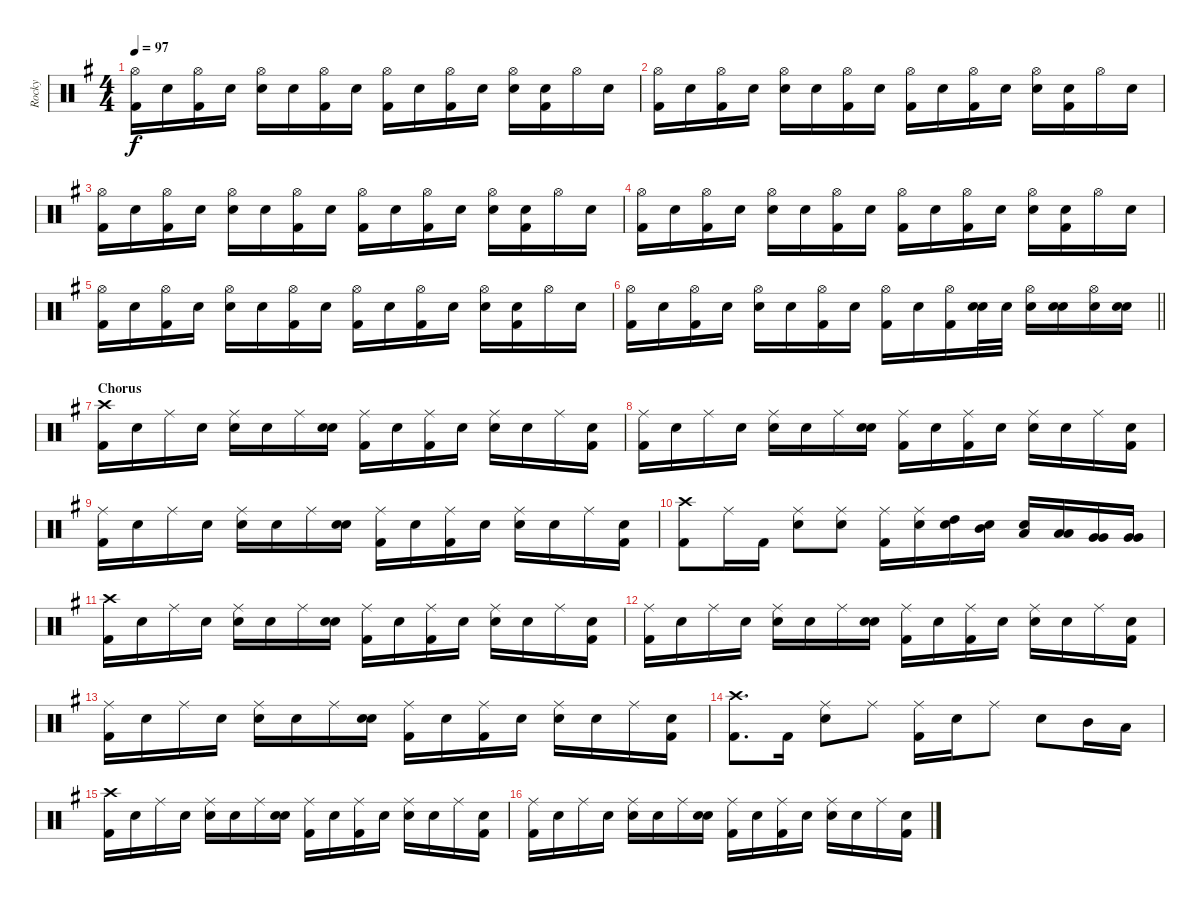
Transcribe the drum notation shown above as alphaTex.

\track ("Rocky" "Rocky") {instrument percussion}
\staff {score}
\articulation defaults
\ts (4 4)
\tempo 97
\clef neutral
\ks g
("Hi-Hat (open)" "Kick (hit) 2").16{dy f} "Snare (hit)".16 ("Hi-Hat (open)" "Kick (hit) 2").16 "Snare (hit)".16 ("Hi-Hat (open)" "Snare (hit) 2").16 "Snare (hit)".16 ("Hi-Hat (open)" "Kick (hit) 2").16 "Snare (hit)".16 ("Hi-Hat (open)" "Kick (hit) 2").16 "Snare (hit)".16 ("Hi-Hat (open)" "Kick (hit) 2").16 "Snare (hit)".16 ("Hi-Hat (open)" "Snare (hit) 2").16 ("Snare (hit)" "Kick (hit) 2").16 "Hi-Hat (open)".16 "Snare (hit)".16 |
("Hi-Hat (open)" "Kick (hit) 2").16 "Snare (hit)".16 ("Hi-Hat (open)" "Kick (hit) 2").16 "Snare (hit)".16 ("Hi-Hat (open)" "Snare (hit) 2").16 "Snare (hit)".16 ("Hi-Hat (open)" "Kick (hit) 2").16 "Snare (hit)".16 ("Hi-Hat (open)" "Kick (hit) 2").16 "Snare (hit)".16 ("Hi-Hat (open)" "Kick (hit) 2").16 "Snare (hit)".16 ("Hi-Hat (open)" "Snare (hit) 2").16 ("Snare (hit)" "Kick (hit) 2").16 "Hi-Hat (open)".16 "Snare (hit)".16 |
("Hi-Hat (open)" "Kick (hit) 2").16 "Snare (hit)".16 ("Hi-Hat (open)" "Kick (hit) 2").16 "Snare (hit)".16 ("Hi-Hat (open)" "Snare (hit) 2").16 "Snare (hit)".16 ("Hi-Hat (open)" "Kick (hit) 2").16 "Snare (hit)".16 ("Hi-Hat (open)" "Kick (hit) 2").16 "Snare (hit)".16 ("Hi-Hat (open)" "Kick (hit) 2").16 "Snare (hit)".16 ("Hi-Hat (open)" "Snare (hit) 2").16 ("Snare (hit)" "Kick (hit) 2").16 "Hi-Hat (open)".16 "Snare (hit)".16 |
("Hi-Hat (open)" "Kick (hit) 2").16 "Snare (hit)".16 ("Hi-Hat (open)" "Kick (hit) 2").16 "Snare (hit)".16 ("Hi-Hat (open)" "Snare (hit) 2").16 "Snare (hit)".16 ("Hi-Hat (open)" "Kick (hit) 2").16 "Snare (hit)".16 ("Hi-Hat (open)" "Kick (hit) 2").16 "Snare (hit)".16 ("Hi-Hat (open)" "Kick (hit) 2").16 "Snare (hit)".16 ("Hi-Hat (open)" "Snare (hit) 2").16 ("Snare (hit)" "Kick (hit) 2").16 "Hi-Hat (open)".16 "Snare (hit)".16 |
("Hi-Hat (open)" "Kick (hit) 2").16 "Snare (hit)".16 ("Hi-Hat (open)" "Kick (hit) 2").16 "Snare (hit)".16 ("Hi-Hat (open)" "Snare (hit) 2").16 "Snare (hit)".16 ("Hi-Hat (open)" "Kick (hit) 2").16 "Snare (hit)".16 ("Hi-Hat (open)" "Kick (hit) 2").16 "Snare (hit)".16 ("Hi-Hat (open)" "Kick (hit) 2").16 "Snare (hit)".16 ("Hi-Hat (open)" "Snare (hit) 2").16 ("Snare (hit)" "Kick (hit) 2").16 "Hi-Hat (open)".16 "Snare (hit)".16 |
\barLineRight lightlight
("Hi-Hat (open)" "Kick (hit) 2").16 "Snare (hit)".16 ("Hi-Hat (open)" "Kick (hit) 2").16 "Snare (hit)".16 ("Hi-Hat (open)" "Snare (hit) 2").16 "Snare (hit)".16 ("Hi-Hat (open)" "Kick (hit) 2").16 "Snare (hit)".16 ("Hi-Hat (open)" "Kick (hit) 2").16 "Snare (hit)".16 ("Hi-Hat (open)" "Kick (hit) 2").16 ("Snare (hit)" "Snare (hit) 2").32 "Snare (hit) 2".32 ("Hi-Hat (open)" "Snare (hit) 2").16 ("Snare (hit)" "Snare (hit) 2").16 ("Hi-Hat (open)" "Snare (hit) 2").16 ("Snare (hit)" "Snare (hit) 2").16 |
\section ("" "Chorus")
("Crash high (hit)" "Kick (hit) 2").16 "Snare (hit)".16 "Ride (middle)".16 "Snare (hit)".16 ("Ride (middle)" "Snare (hit) 2").16 "Snare (hit)".16 "Ride (middle)".16 ("Snare (hit)" "Snare (hit) 2").16 ("Ride (middle)" "Kick (hit) 2").16 "Snare (hit)".16 ("Ride (middle)" "Kick (hit) 2").16 "Snare (hit)".16 ("Ride (middle)" "Snare (hit) 2").16 "Snare (hit)".16 "Ride (middle)".16 ("Snare (hit)" "Kick (hit) 2").16 |
("Ride (middle)" "Kick (hit) 2").16 "Snare (hit)".16 "Ride (middle)".16 "Snare (hit)".16 ("Ride (middle)" "Snare (hit) 2").16 "Snare (hit)".16 "Ride (middle)".16 ("Snare (hit)" "Snare (hit) 2").16 ("Ride (middle)" "Kick (hit) 2").16 "Snare (hit)".16 ("Ride (middle)" "Kick (hit) 2").16 "Snare (hit)".16 ("Ride (middle)" "Snare (hit) 2").16 "Snare (hit)".16 "Ride (middle)".16 ("Snare (hit)" "Kick (hit) 2").16 |
("Ride (middle)" "Kick (hit) 2").16 "Snare (hit)".16 "Ride (middle)".16 "Snare (hit)".16 ("Ride (middle)" "Snare (hit) 2").16 "Snare (hit)".16 "Ride (middle)".16 ("Snare (hit)" "Snare (hit) 2").16 ("Ride (middle)" "Kick (hit) 2").16 "Snare (hit)".16 ("Ride (middle)" "Kick (hit) 2").16 "Snare (hit)".16 ("Ride (middle)" "Snare (hit) 2").16 "Snare (hit)".16 "Ride (middle)".16 ("Snare (hit)" "Kick (hit) 2").16 |
("Crash high (hit)" "Kick (hit) 2").8 "Ride (middle)".16 "Kick (hit) 2".16 ("Ride (middle)" "Snare (hit) 2").8 ("Ride (middle)" "Snare (hit) 2").8 ("Ride (middle)" "Kick (hit) 2").16 ("Ride (middle)" "Snare (hit) 2").16 ("High Tom (hit)" "Snare (hit) 2").16 ("Mid Tom (hit)" "Snare (hit) 2").16 ("Low Tom (hit)" "Snare (hit) 2").16 ("Low Tom (hit)" "Low Tom (hit)").16 ("Very Low Tom (hit)" "Very Low Tom (hit)").16 ("Very Low Tom (hit)" "Very Low Tom (hit)").16 |
("Crash high (hit)" "Kick (hit) 2").16 "Snare (hit)".16 "Ride (middle)".16 "Snare (hit)".16 ("Ride (middle)" "Snare (hit) 2").16 "Snare (hit)".16 "Ride (middle)".16 ("Snare (hit)" "Snare (hit) 2").16 ("Ride (middle)" "Kick (hit) 2").16 "Snare (hit)".16 ("Ride (middle)" "Kick (hit) 2").16 "Snare (hit)".16 ("Ride (middle)" "Snare (hit) 2").16 "Snare (hit)".16 "Ride (middle)".16 ("Snare (hit)" "Kick (hit) 2").16 |
("Ride (middle)" "Kick (hit) 2").16 "Snare (hit)".16 "Ride (middle)".16 "Snare (hit)".16 ("Ride (middle)" "Snare (hit) 2").16 "Snare (hit)".16 "Ride (middle)".16 ("Snare (hit)" "Snare (hit) 2").16 ("Ride (middle)" "Kick (hit) 2").16 "Snare (hit)".16 ("Ride (middle)" "Kick (hit) 2").16 "Snare (hit)".16 ("Ride (middle)" "Snare (hit) 2").16 "Snare (hit)".16 "Ride (middle)".16 ("Snare (hit)" "Kick (hit) 2").16 |
("Ride (middle)" "Kick (hit) 2").16 "Snare (hit)".16 "Ride (middle)".16 "Snare (hit)".16 ("Ride (middle)" "Snare (hit) 2").16 "Snare (hit)".16 "Ride (middle)".16 ("Snare (hit)" "Snare (hit) 2").16 ("Ride (middle)" "Kick (hit) 2").16 "Snare (hit)".16 ("Ride (middle)" "Kick (hit) 2").16 "Snare (hit)".16 ("Ride (middle)" "Snare (hit) 2").16 "Snare (hit)".16 "Ride (middle)".16 ("Snare (hit)" "Kick (hit) 2").16 |
("Crash high (hit)" "Kick (hit) 2").8{d} "Kick (hit) 2".16 ("Ride (middle)" "Snare (hit) 2").8 "Ride (middle)".8 ("Ride (middle)" "Kick (hit) 2").16 "Snare (hit) 2".16 "Ride (middle)".8 "Snare (hit) 2".8 "Mid Tom (hit)".16 "Low Tom (hit)".16 |
("Crash high (hit)" "Kick (hit) 2").16 "Snare (hit)".16 "Ride (middle)".16 "Snare (hit)".16 ("Ride (middle)" "Snare (hit) 2").16 "Snare (hit)".16 "Ride (middle)".16 ("Snare (hit)" "Snare (hit) 2").16 ("Ride (middle)" "Kick (hit) 2").16 "Snare (hit)".16 ("Ride (middle)" "Kick (hit) 2").16 "Snare (hit)".16 ("Ride (middle)" "Snare (hit) 2").16 "Snare (hit)".16 "Ride (middle)".16 ("Snare (hit)" "Kick (hit) 2").16 |
("Ride (middle)" "Kick (hit) 2").16 "Snare (hit)".16 "Ride (middle)".16 "Snare (hit)".16 ("Ride (middle)" "Snare (hit) 2").16 "Snare (hit)".16 "Ride (middle)".16 ("Snare (hit)" "Snare (hit) 2").16 ("Ride (middle)" "Kick (hit) 2").16 "Snare (hit)".16 ("Ride (middle)" "Kick (hit) 2").16 "Snare (hit)".16 ("Ride (middle)" "Snare (hit) 2").16 "Snare (hit)".16 "Ride (middle)".16 ("Snare (hit)" "Kick (hit) 2").16
